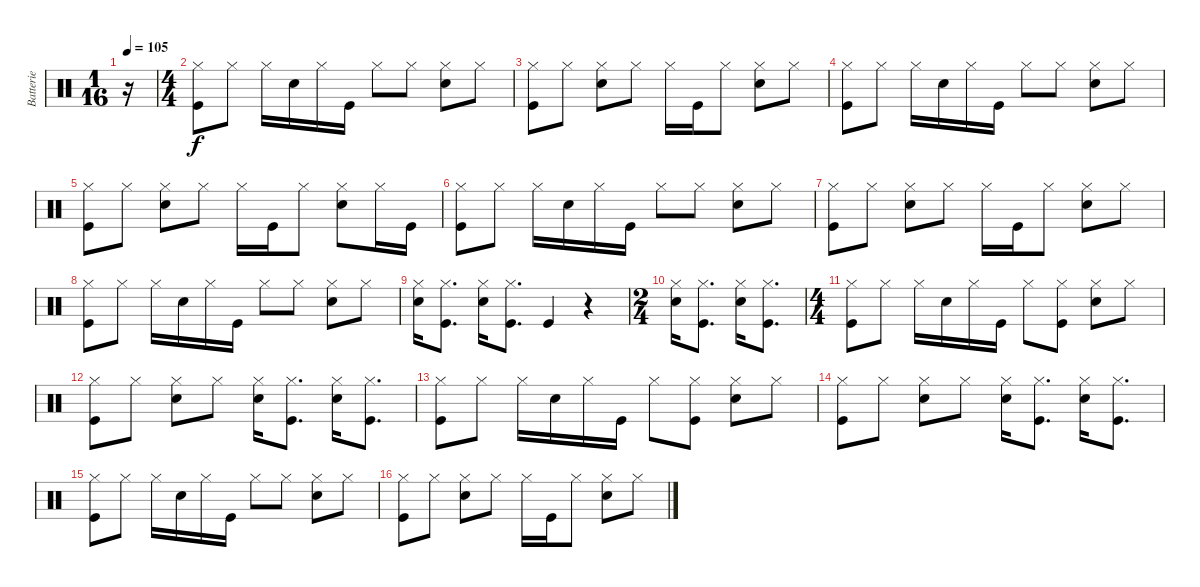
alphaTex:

\track ("Batterie" "Batterie") {instrument percussion}
\staff {score}
\articulation defaults
\ts (1 16)
\tempo 105
\clef neutral
\ks c
r.16{dy f} |
\ts (4 4)
("Hi-Hat (closed)" "Kick (hit)").8 "Hi-Hat (closed)".8 "Hi-Hat (closed)".16 "Snare (hit) 2".16 "Hi-Hat (closed)".16 "Kick (hit)".16 "Hi-Hat (closed)".8 "Hi-Hat (closed)".8 ("Hi-Hat (closed)" "Snare (hit) 2").8 "Hi-Hat (closed)".8 |
("Hi-Hat (closed)" "Kick (hit)").8 "Hi-Hat (closed)".8 ("Hi-Hat (closed)" "Snare (hit) 2").8 "Hi-Hat (closed)".8 "Hi-Hat (closed)".16 "Kick (hit)".16 "Hi-Hat (closed)".8 ("Hi-Hat (closed)" "Snare (hit) 2").8 "Hi-Hat (closed)".8 |
("Hi-Hat (closed)" "Kick (hit)").8 "Hi-Hat (closed)".8 "Hi-Hat (closed)".16 "Snare (hit) 2".16 "Hi-Hat (closed)".16 "Kick (hit)".16 "Hi-Hat (closed)".8 "Hi-Hat (closed)".8 ("Hi-Hat (closed)" "Snare (hit) 2").8 "Hi-Hat (closed)".8 |
("Hi-Hat (closed)" "Kick (hit)").8 "Hi-Hat (closed)".8 ("Hi-Hat (closed)" "Snare (hit) 2").8 "Hi-Hat (closed)".8 "Hi-Hat (closed)".16 "Kick (hit)".16 "Hi-Hat (closed)".8 ("Hi-Hat (closed)" "Snare (hit) 2").8 "Hi-Hat (closed)".16 "Kick (hit)".16 |
("Hi-Hat (closed)" "Kick (hit)").8 "Hi-Hat (closed)".8 "Hi-Hat (closed)".16 "Snare (hit) 2".16 "Hi-Hat (closed)".16 "Kick (hit)".16 "Hi-Hat (closed)".8 "Hi-Hat (closed)".8 ("Hi-Hat (closed)" "Snare (hit) 2").8 "Hi-Hat (closed)".8 |
("Hi-Hat (closed)" "Kick (hit)").8 "Hi-Hat (closed)".8 ("Hi-Hat (closed)" "Snare (hit) 2").8 "Hi-Hat (closed)".8 "Hi-Hat (closed)".16 "Kick (hit)".16 "Hi-Hat (closed)".8 ("Hi-Hat (closed)" "Snare (hit) 2").8 "Hi-Hat (closed)".8 |
("Hi-Hat (closed)" "Kick (hit)").8 "Hi-Hat (closed)".8 "Hi-Hat (closed)".16 "Snare (hit) 2".16 "Hi-Hat (closed)".16 "Kick (hit)".16 "Hi-Hat (closed)".8 "Hi-Hat (closed)".8 ("Hi-Hat (closed)" "Snare (hit) 2").8 "Hi-Hat (closed)".8 |
("Hi-Hat (closed)" "Snare (hit) 2").16 ("Hi-Hat (closed)" "Kick (hit)").8{d} ("Hi-Hat (closed)" "Snare (hit) 2").16 ("Hi-Hat (closed)" "Kick (hit)").8{d} "Kick (hit)".4 r.4 |
\ts (2 4)
("Hi-Hat (closed)" "Snare (hit) 2").16 ("Hi-Hat (closed)" "Kick (hit)").8{d} ("Hi-Hat (closed)" "Snare (hit) 2").16 ("Hi-Hat (closed)" "Kick (hit)").8{d} |
\ts (4 4)
("Hi-Hat (closed)" "Kick (hit)").8 "Hi-Hat (closed)".8 "Hi-Hat (closed)".16 "Snare (hit) 2".16 "Hi-Hat (closed)".16 "Kick (hit)".16 "Hi-Hat (closed)".8 ("Hi-Hat (closed)" "Kick (hit)").8 ("Hi-Hat (closed)" "Snare (hit) 2").8 "Hi-Hat (closed)".8 |
("Hi-Hat (closed)" "Kick (hit)").8 "Hi-Hat (closed)".8 ("Hi-Hat (closed)" "Snare (hit) 2").8 "Hi-Hat (closed)".8 ("Hi-Hat (closed)" "Snare (hit) 2").16 ("Hi-Hat (closed)" "Kick (hit)").8{d} ("Hi-Hat (closed)" "Snare (hit) 2").16 ("Hi-Hat (closed)" "Kick (hit)").8{d} |
("Hi-Hat (closed)" "Kick (hit)").8 "Hi-Hat (closed)".8 "Hi-Hat (closed)".16 "Snare (hit) 2".16 "Hi-Hat (closed)".16 "Kick (hit)".16 "Hi-Hat (closed)".8 ("Hi-Hat (closed)" "Kick (hit)").8 ("Hi-Hat (closed)" "Snare (hit) 2").8 "Hi-Hat (closed)".8 |
("Hi-Hat (closed)" "Kick (hit)").8 "Hi-Hat (closed)".8 ("Hi-Hat (closed)" "Snare (hit) 2").8 "Hi-Hat (closed)".8 ("Hi-Hat (closed)" "Snare (hit) 2").16 ("Hi-Hat (closed)" "Kick (hit)").8{d} ("Hi-Hat (closed)" "Snare (hit) 2").16 ("Hi-Hat (closed)" "Kick (hit)").8{d} |
("Hi-Hat (closed)" "Kick (hit)").8 "Hi-Hat (closed)".8 "Hi-Hat (closed)".16 "Snare (hit) 2".16 "Hi-Hat (closed)".16 "Kick (hit)".16 "Hi-Hat (closed)".8 "Hi-Hat (closed)".8 ("Hi-Hat (closed)" "Snare (hit) 2").8 "Hi-Hat (closed)".8 |
("Hi-Hat (closed)" "Kick (hit)").8 "Hi-Hat (closed)".8 ("Hi-Hat (closed)" "Snare (hit) 2").8 "Hi-Hat (closed)".8 "Hi-Hat (closed)".16 "Kick (hit)".16 "Hi-Hat (closed)".8 ("Hi-Hat (closed)" "Snare (hit) 2").8 "Hi-Hat (closed)".8
